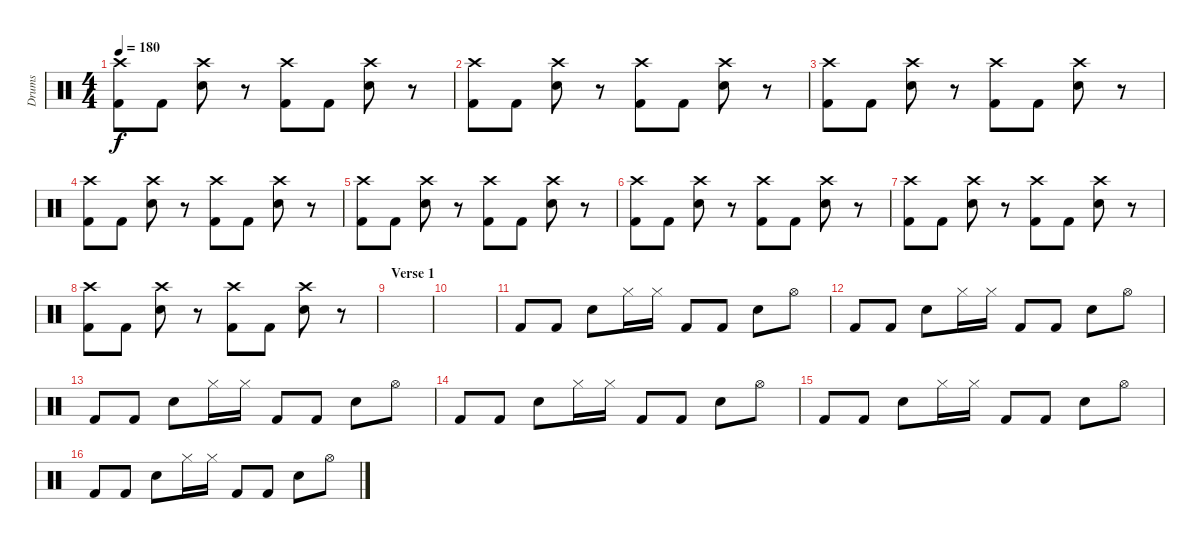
\track ("Drums" "Drums") {instrument percussion}
\staff {score}
\articulation defaults
\ts (4 4)
\tempo 180
\clef neutral
\ks c
("Crash high (hit)" "Kick (hit) 2").8{dy f} "Kick (hit) 2".8 ("Crash high (hit)" "Snare (hit) 2").8 r.8 ("Crash high (hit)" "Kick (hit) 2").8 "Kick (hit) 2".8 ("Crash high (hit)" "Snare (hit) 2").8 r.8 |
("Crash high (hit)" "Kick (hit) 2").8 "Kick (hit) 2".8 ("Crash high (hit)" "Snare (hit) 2").8 r.8 ("Crash high (hit)" "Kick (hit) 2").8 "Kick (hit) 2".8 ("Crash high (hit)" "Snare (hit) 2").8 r.8 |
("Crash high (hit)" "Kick (hit) 2").8 "Kick (hit) 2".8 ("Crash high (hit)" "Snare (hit) 2").8 r.8 ("Crash high (hit)" "Kick (hit) 2").8 "Kick (hit) 2".8 ("Crash high (hit)" "Snare (hit) 2").8 r.8 |
("Crash high (hit)" "Kick (hit) 2").8 "Kick (hit) 2".8 ("Crash high (hit)" "Snare (hit) 2").8 r.8 ("Crash high (hit)" "Kick (hit) 2").8 "Kick (hit) 2".8 ("Crash high (hit)" "Snare (hit) 2").8 r.8 |
("Crash high (hit)" "Kick (hit) 2").8 "Kick (hit) 2".8 ("Crash high (hit)" "Snare (hit) 2").8 r.8 ("Crash high (hit)" "Kick (hit) 2").8 "Kick (hit) 2".8 ("Crash high (hit)" "Snare (hit) 2").8 r.8 |
("Crash high (hit)" "Kick (hit) 2").8 "Kick (hit) 2".8 ("Crash high (hit)" "Snare (hit) 2").8 r.8 ("Crash high (hit)" "Kick (hit) 2").8 "Kick (hit) 2".8 ("Crash high (hit)" "Snare (hit) 2").8 r.8 |
("Crash high (hit)" "Kick (hit) 2").8 "Kick (hit) 2".8 ("Crash high (hit)" "Snare (hit) 2").8 r.8 ("Crash high (hit)" "Kick (hit) 2").8 "Kick (hit) 2".8 ("Crash high (hit)" "Snare (hit) 2").8 r.8 |
("Crash high (hit)" "Kick (hit) 2").8 "Kick (hit) 2".8 ("Crash high (hit)" "Snare (hit) 2").8 r.8 ("Crash high (hit)" "Kick (hit) 2").8 "Kick (hit) 2".8 ("Crash high (hit)" "Snare (hit) 2").8 r.8 |
\section ("" "Verse 1")
|
|
"Kick (hit) 2".8 "Kick (hit) 2".8 "Snare (hit) 2".8 "Hi-Hat (closed)".16 "Hi-Hat (closed)".16 "Kick (hit) 2".8 "Kick (hit) 2".8 "Snare (hit) 2".8 "Hi-Hat (open)".8 |
"Kick (hit) 2".8 "Kick (hit) 2".8 "Snare (hit) 2".8 "Hi-Hat (closed)".16 "Hi-Hat (closed)".16 "Kick (hit) 2".8 "Kick (hit) 2".8 "Snare (hit) 2".8 "Hi-Hat (open)".8 |
"Kick (hit) 2".8 "Kick (hit) 2".8 "Snare (hit) 2".8 "Hi-Hat (closed)".16 "Hi-Hat (closed)".16 "Kick (hit) 2".8 "Kick (hit) 2".8 "Snare (hit) 2".8 "Hi-Hat (open)".8 |
"Kick (hit) 2".8 "Kick (hit) 2".8 "Snare (hit) 2".8 "Hi-Hat (closed)".16 "Hi-Hat (closed)".16 "Kick (hit) 2".8 "Kick (hit) 2".8 "Snare (hit) 2".8 "Hi-Hat (open)".8 |
"Kick (hit) 2".8 "Kick (hit) 2".8 "Snare (hit) 2".8 "Hi-Hat (closed)".16 "Hi-Hat (closed)".16 "Kick (hit) 2".8 "Kick (hit) 2".8 "Snare (hit) 2".8 "Hi-Hat (open)".8 |
"Kick (hit) 2".8 "Kick (hit) 2".8 "Snare (hit) 2".8 "Hi-Hat (closed)".16 "Hi-Hat (closed)".16 "Kick (hit) 2".8 "Kick (hit) 2".8 "Snare (hit) 2".8 "Hi-Hat (open)".8
